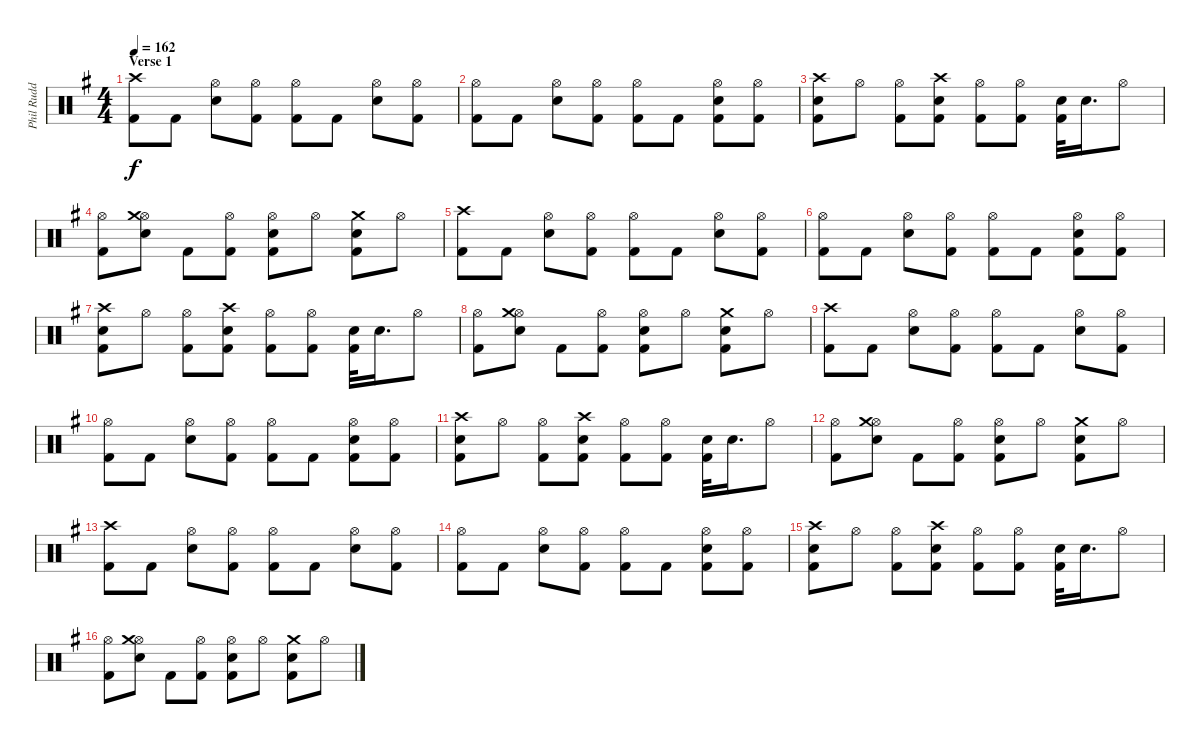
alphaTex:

\track ("Phil Rudd" "Phil Rudd") {instrument percussion}
\staff {score}
\articulation defaults
\ts (4 4)
\section ("" "Verse 1")
\tempo 162
\clef neutral
\ks g
("Crash high (hit)" "Kick (hit) 2").8{dy f} "Kick (hit) 2".8 ("Hi-Hat (open)" "Snare (hit) 2").8 ("Kick (hit) 2" "Hi-Hat (open)").8 ("Hi-Hat (open)" "Kick (hit) 2").8 "Kick (hit) 2".8 ("Hi-Hat (open)" "Snare (hit) 2").8 ("Hi-Hat (open)" "Kick (hit) 2").8 |
("Hi-Hat (open)" "Kick (hit) 2").8 "Kick (hit) 2".8 ("Hi-Hat (open)" "Snare (hit) 2").8 ("Hi-Hat (open)" "Kick (hit) 2").8 ("Hi-Hat (open)" "Kick (hit) 2").8 "Kick (hit) 2".8 ("Kick (hit) 2" "Hi-Hat (open)" "Snare (hit) 2").8 ("Kick (hit) 2" "Hi-Hat (open)").8 |
("Crash high (hit)" "Snare (hit) 2" "Kick (hit) 2").8 "Hi-Hat (open)".8 ("Hi-Hat (open)" "Kick (hit) 2").8 ("Crash high (hit)" "Snare (hit) 2" "Kick (hit) 2").8 ("Hi-Hat (open)" "Kick (hit) 2").8 ("Kick (hit) 2" "Hi-Hat (open)").8 ("Snare (hit) 2" "Kick (hit) 2").32 "Snare (hit) 2".16{d} "Hi-Hat (open)".8 |
("Kick (hit) 2" "Hi-Hat (open)").8 ("Hi-Hat (open)" "Crash medium (hit)" "Snare (hit) 2").8 "Kick (hit) 2".8 ("Kick (hit) 2" "Hi-Hat (open)").8 ("Hi-Hat (open)" "Kick (hit) 2" "Snare (hit) 2").8 "Hi-Hat (open)".8 ("Snare (hit) 2" "Kick (hit) 2" "Crash medium (hit)").8 "Hi-Hat (open)".8 |
("Crash high (hit)" "Kick (hit) 2").8 "Kick (hit) 2".8 ("Hi-Hat (open)" "Snare (hit) 2").8 ("Kick (hit) 2" "Hi-Hat (open)").8 ("Hi-Hat (open)" "Kick (hit) 2").8 "Kick (hit) 2".8 ("Hi-Hat (open)" "Snare (hit) 2").8 ("Hi-Hat (open)" "Kick (hit) 2").8 |
("Hi-Hat (open)" "Kick (hit) 2").8 "Kick (hit) 2".8 ("Hi-Hat (open)" "Snare (hit) 2").8 ("Hi-Hat (open)" "Kick (hit) 2").8 ("Hi-Hat (open)" "Kick (hit) 2").8 "Kick (hit) 2".8 ("Kick (hit) 2" "Hi-Hat (open)" "Snare (hit) 2").8 ("Kick (hit) 2" "Hi-Hat (open)").8 |
("Crash high (hit)" "Snare (hit) 2" "Kick (hit) 2").8 "Hi-Hat (open)".8 ("Hi-Hat (open)" "Kick (hit) 2").8 ("Crash high (hit)" "Snare (hit) 2" "Kick (hit) 2").8 ("Hi-Hat (open)" "Kick (hit) 2").8 ("Kick (hit) 2" "Hi-Hat (open)").8 ("Snare (hit) 2" "Kick (hit) 2").32 "Snare (hit) 2".16{d} "Hi-Hat (open)".8 |
("Kick (hit) 2" "Hi-Hat (open)").8 ("Hi-Hat (open)" "Crash medium (hit)" "Snare (hit) 2").8 "Kick (hit) 2".8 ("Kick (hit) 2" "Hi-Hat (open)").8 ("Hi-Hat (open)" "Kick (hit) 2" "Snare (hit) 2").8 "Hi-Hat (open)".8 ("Snare (hit) 2" "Kick (hit) 2" "Crash medium (hit)").8 "Hi-Hat (open)".8 |
("Crash high (hit)" "Kick (hit) 2").8 "Kick (hit) 2".8 ("Hi-Hat (open)" "Snare (hit) 2").8 ("Kick (hit) 2" "Hi-Hat (open)").8 ("Hi-Hat (open)" "Kick (hit) 2").8 "Kick (hit) 2".8 ("Hi-Hat (open)" "Snare (hit) 2").8 ("Hi-Hat (open)" "Kick (hit) 2").8 |
("Hi-Hat (open)" "Kick (hit) 2").8 "Kick (hit) 2".8 ("Hi-Hat (open)" "Snare (hit) 2").8 ("Hi-Hat (open)" "Kick (hit) 2").8 ("Hi-Hat (open)" "Kick (hit) 2").8 "Kick (hit) 2".8 ("Kick (hit) 2" "Hi-Hat (open)" "Snare (hit) 2").8 ("Kick (hit) 2" "Hi-Hat (open)").8 |
("Crash high (hit)" "Snare (hit) 2" "Kick (hit) 2").8 "Hi-Hat (open)".8 ("Hi-Hat (open)" "Kick (hit) 2").8 ("Crash high (hit)" "Snare (hit) 2" "Kick (hit) 2").8 ("Hi-Hat (open)" "Kick (hit) 2").8 ("Kick (hit) 2" "Hi-Hat (open)").8 ("Snare (hit) 2" "Kick (hit) 2").32 "Snare (hit) 2".16{d} "Hi-Hat (open)".8 |
("Kick (hit) 2" "Hi-Hat (open)").8 ("Hi-Hat (open)" "Crash medium (hit)" "Snare (hit) 2").8 "Kick (hit) 2".8 ("Kick (hit) 2" "Hi-Hat (open)").8 ("Hi-Hat (open)" "Kick (hit) 2" "Snare (hit) 2").8 "Hi-Hat (open)".8 ("Snare (hit) 2" "Kick (hit) 2" "Crash medium (hit)").8 "Hi-Hat (open)".8 |
("Crash high (hit)" "Kick (hit) 2").8 "Kick (hit) 2".8 ("Hi-Hat (open)" "Snare (hit) 2").8 ("Kick (hit) 2" "Hi-Hat (open)").8 ("Hi-Hat (open)" "Kick (hit) 2").8 "Kick (hit) 2".8 ("Hi-Hat (open)" "Snare (hit) 2").8 ("Hi-Hat (open)" "Kick (hit) 2").8 |
("Hi-Hat (open)" "Kick (hit) 2").8 "Kick (hit) 2".8 ("Hi-Hat (open)" "Snare (hit) 2").8 ("Hi-Hat (open)" "Kick (hit) 2").8 ("Hi-Hat (open)" "Kick (hit) 2").8 "Kick (hit) 2".8 ("Kick (hit) 2" "Hi-Hat (open)" "Snare (hit) 2").8 ("Kick (hit) 2" "Hi-Hat (open)").8 |
("Crash high (hit)" "Snare (hit) 2" "Kick (hit) 2").8 "Hi-Hat (open)".8 ("Hi-Hat (open)" "Kick (hit) 2").8 ("Crash high (hit)" "Snare (hit) 2" "Kick (hit) 2").8 ("Hi-Hat (open)" "Kick (hit) 2").8 ("Kick (hit) 2" "Hi-Hat (open)").8 ("Snare (hit) 2" "Kick (hit) 2").32 "Snare (hit) 2".16{d} "Hi-Hat (open)".8 |
("Kick (hit) 2" "Hi-Hat (open)").8 ("Hi-Hat (open)" "Crash medium (hit)" "Snare (hit) 2").8 "Kick (hit) 2".8 ("Kick (hit) 2" "Hi-Hat (open)").8 ("Hi-Hat (open)" "Kick (hit) 2" "Snare (hit) 2").8 "Hi-Hat (open)".8 ("Snare (hit) 2" "Kick (hit) 2" "Crash medium (hit)").8 "Hi-Hat (open)".8
